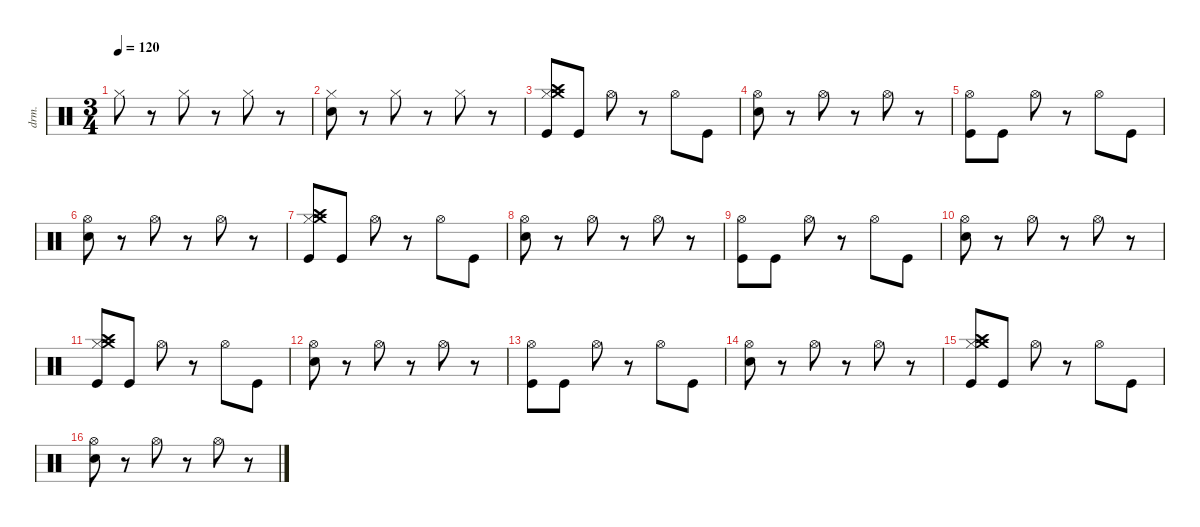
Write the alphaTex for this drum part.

\defaultSystemsLayout 4
\hideDynamics
\bracketExtendMode nobrackets
\otherSystemsTrackNameOrientation horizontal
\track ("Drumkit" "drm.") {instrument percussion}
\staff {score}
\articulation defaults
\ts (3 4)
\tempo 120
\clef neutral
\ks c "Hi-Hat (closed)".8{dy mf beam Down}
r.8{beam Down} "Hi-Hat (closed)".8{beam Down} r.8{beam Down} "Hi-Hat (closed)".8{beam Down} r.8{beam Down} |
("Hi-Hat (closed)" "Snare (hit) 2").8{beam Down} r.8{beam Down} "Hi-Hat (closed)".8{beam Down} r.8{beam Down} "Hi-Hat (closed)".8{beam Down} r.8{beam Down} |
("Kick (hit)" "Hi-Hat (closed)" "Crash medium (hit)" "Crash high (hit)").8{beam Up} "Kick (hit)".8{beam Up} "Hi-Hat (open)".8{beam Down} r.8{beam Down} "Hi-Hat (open)".8{beam Down} "Kick (hit)".8{beam Down} |
("Hi-Hat (open)" "Snare (hit) 2").8{beam Down} r.8{beam Down} "Hi-Hat (open)".8{beam Down} r.8{beam Down} "Hi-Hat (open)".8{beam Down} r.8{beam Down} |
("Kick (hit)" "Hi-Hat (open)").8{beam Down} "Kick (hit)".8{beam Down} "Hi-Hat (open)".8{beam Down} r.8{beam Down} "Hi-Hat (open)".8{beam Down} "Kick (hit)".8{beam Down} |
("Hi-Hat (open)" "Snare (hit) 2").8{beam Down} r.8{beam Down} "Hi-Hat (open)".8{beam Down} r.8{beam Down} "Hi-Hat (open)".8{beam Down} r.8{beam Down} |
("Kick (hit)" "Hi-Hat (closed)" "Crash medium (hit)" "Crash high (hit)").8{beam Up} "Kick (hit)".8{beam Up} "Hi-Hat (open)".8{beam Down} r.8{beam Down} "Hi-Hat (open)".8{beam Down} "Kick (hit)".8{beam Down} |
("Hi-Hat (open)" "Snare (hit) 2").8{beam Down} r.8{beam Down} "Hi-Hat (open)".8{beam Down} r.8{beam Down} "Hi-Hat (open)".8{beam Down} r.8{beam Down} |
("Kick (hit)" "Hi-Hat (open)").8{beam Down} "Kick (hit)".8{beam Down} "Hi-Hat (open)".8{beam Down} r.8{beam Down} "Hi-Hat (open)".8{beam Down} "Kick (hit)".8{beam Down} |
("Hi-Hat (open)" "Snare (hit) 2").8{beam Down} r.8{beam Down} "Hi-Hat (open)".8{beam Down} r.8{beam Down} "Hi-Hat (open)".8{beam Down} r.8{beam Down} |
("Kick (hit)" "Hi-Hat (closed)" "Crash medium (hit)" "Crash high (hit)").8{beam Up} "Kick (hit)".8{beam Up} "Hi-Hat (open)".8{beam Down} r.8{beam Down} "Hi-Hat (open)".8{beam Down} "Kick (hit)".8{beam Down} |
("Hi-Hat (open)" "Snare (hit) 2").8{beam Down} r.8{beam Down} "Hi-Hat (open)".8{beam Down} r.8{beam Down} "Hi-Hat (open)".8{beam Down} r.8{beam Down} |
("Kick (hit)" "Hi-Hat (open)").8{beam Down} "Kick (hit)".8{beam Down} "Hi-Hat (open)".8{beam Down} r.8{beam Down} "Hi-Hat (open)".8{beam Down} "Kick (hit)".8{beam Down} |
("Hi-Hat (open)" "Snare (hit) 2").8{beam Down} r.8{beam Down} "Hi-Hat (open)".8{beam Down} r.8{beam Down} "Hi-Hat (open)".8{beam Down} r.8{beam Down} |
("Kick (hit)" "Hi-Hat (closed)" "Crash medium (hit)" "Crash high (hit)").8{beam Up} "Kick (hit)".8{beam Up} "Hi-Hat (open)".8{beam Down} r.8{beam Down} "Hi-Hat (open)".8{beam Down} "Kick (hit)".8{beam Down} |
("Hi-Hat (open)" "Snare (hit) 2").8{beam Down} r.8{beam Down} "Hi-Hat (open)".8{beam Down} r.8{beam Down} "Hi-Hat (open)".8{beam Down} r.8{beam Down}
